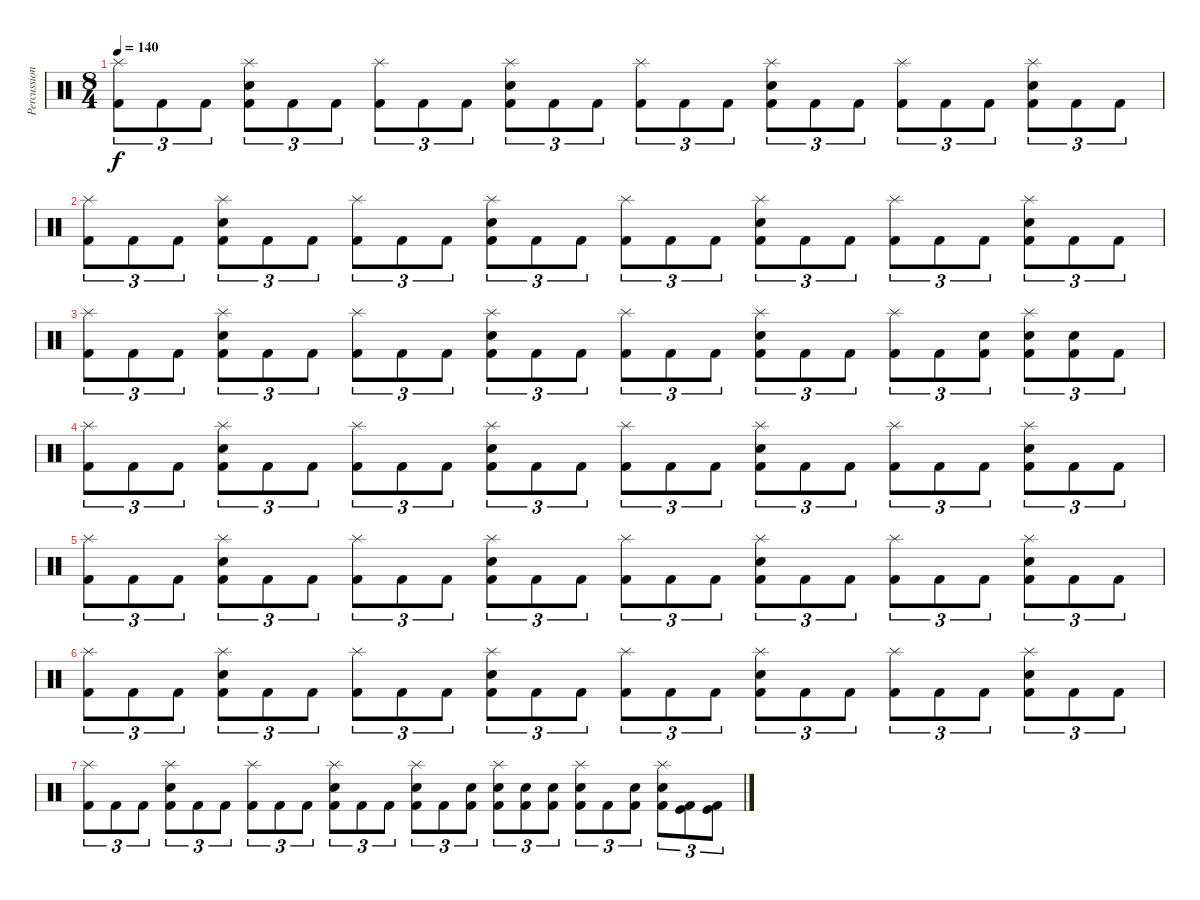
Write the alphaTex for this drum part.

\track ("Percussion" "Percussion") {instrument percussion}
\staff {score}
\articulation defaults
\ts (8 4)
\tempo 140
\clef neutral
\ks c
("Splash (hit)" "Kick (hit) 2").8{tu (3 2) dy f} "Kick (hit) 2".8{tu (3 2)} "Kick (hit) 2".8{tu (3 2)} ("Splash (hit)" "Snare (hit) 2" "Kick (hit) 2").8{tu (3 2)} "Kick (hit) 2".8{tu (3 2)} "Kick (hit) 2".8{tu (3 2)} ("Splash (hit)" "Kick (hit) 2").8{tu (3 2)} "Kick (hit) 2".8{tu (3 2)} "Kick (hit) 2".8{tu (3 2)} ("Splash (hit)" "Snare (hit) 2" "Kick (hit) 2").8{tu (3 2)} "Kick (hit) 2".8{tu (3 2)} "Kick (hit) 2".8{tu (3 2)} ("Splash (hit)" "Kick (hit) 2").8{tu (3 2)} "Kick (hit) 2".8{tu (3 2)} "Kick (hit) 2".8{tu (3 2)} ("Splash (hit)" "Snare (hit) 2" "Kick (hit) 2").8{tu (3 2)} "Kick (hit) 2".8{tu (3 2)} "Kick (hit) 2".8{tu (3 2)} ("Splash (hit)" "Kick (hit) 2").8{tu (3 2)} "Kick (hit) 2".8{tu (3 2)} "Kick (hit) 2".8{tu (3 2)} ("Splash (hit)" "Snare (hit) 2" "Kick (hit) 2").8{tu (3 2)} "Kick (hit) 2".8{tu (3 2)} "Kick (hit) 2".8{tu (3 2)} |
("Splash (hit)" "Kick (hit) 2").8{tu (3 2)} "Kick (hit) 2".8{tu (3 2)} "Kick (hit) 2".8{tu (3 2)} ("Splash (hit)" "Snare (hit) 2" "Kick (hit) 2").8{tu (3 2)} "Kick (hit) 2".8{tu (3 2)} "Kick (hit) 2".8{tu (3 2)} ("Splash (hit)" "Kick (hit) 2").8{tu (3 2)} "Kick (hit) 2".8{tu (3 2)} "Kick (hit) 2".8{tu (3 2)} ("Splash (hit)" "Snare (hit) 2" "Kick (hit) 2").8{tu (3 2)} "Kick (hit) 2".8{tu (3 2)} "Kick (hit) 2".8{tu (3 2)} ("Splash (hit)" "Kick (hit) 2").8{tu (3 2)} "Kick (hit) 2".8{tu (3 2)} "Kick (hit) 2".8{tu (3 2)} ("Splash (hit)" "Snare (hit) 2" "Kick (hit) 2").8{tu (3 2)} "Kick (hit) 2".8{tu (3 2)} "Kick (hit) 2".8{tu (3 2)} ("Splash (hit)" "Kick (hit) 2").8{tu (3 2)} "Kick (hit) 2".8{tu (3 2)} "Kick (hit) 2".8{tu (3 2)} ("Splash (hit)" "Snare (hit) 2" "Kick (hit) 2").8{tu (3 2)} "Kick (hit) 2".8{tu (3 2)} "Kick (hit) 2".8{tu (3 2)} |
("Splash (hit)" "Kick (hit) 2").8{tu (3 2) volume 12} "Kick (hit) 2".8{tu (3 2)} "Kick (hit) 2".8{tu (3 2)} ("Splash (hit)" "Snare (hit) 2" "Kick (hit) 2").8{tu (3 2)} "Kick (hit) 2".8{tu (3 2)} "Kick (hit) 2".8{tu (3 2)} ("Splash (hit)" "Kick (hit) 2").8{tu (3 2)} "Kick (hit) 2".8{tu (3 2)} "Kick (hit) 2".8{tu (3 2)} ("Splash (hit)" "Snare (hit) 2" "Kick (hit) 2").8{tu (3 2)} "Kick (hit) 2".8{tu (3 2)} "Kick (hit) 2".8{tu (3 2)} ("Splash (hit)" "Kick (hit) 2").8{tu (3 2)} "Kick (hit) 2".8{tu (3 2)} "Kick (hit) 2".8{tu (3 2)} ("Splash (hit)" "Snare (hit) 2" "Kick (hit) 2").8{tu (3 2)} "Kick (hit) 2".8{tu (3 2)} "Kick (hit) 2".8{tu (3 2)} ("Splash (hit)" "Kick (hit) 2").8{tu (3 2)} "Kick (hit) 2".8{tu (3 2)} ("Snare (hit) 2" "Kick (hit) 2").8{tu (3 2)} ("Splash (hit)" "Snare (hit) 2" "Kick (hit) 2").8{tu (3 2)} ("Snare (hit) 2" "Kick (hit) 2").8{tu (3 2)} "Kick (hit) 2".8{tu (3 2)} |
("Splash (hit)" "Kick (hit) 2").8{tu (3 2) volume 9} "Kick (hit) 2".8{tu (3 2)} "Kick (hit) 2".8{tu (3 2)} ("Splash (hit)" "Snare (hit) 2" "Kick (hit) 2").8{tu (3 2)} "Kick (hit) 2".8{tu (3 2)} "Kick (hit) 2".8{tu (3 2)} ("Splash (hit)" "Kick (hit) 2").8{tu (3 2)} "Kick (hit) 2".8{tu (3 2)} "Kick (hit) 2".8{tu (3 2)} ("Splash (hit)" "Snare (hit) 2" "Kick (hit) 2").8{tu (3 2)} "Kick (hit) 2".8{tu (3 2)} "Kick (hit) 2".8{tu (3 2)} ("Splash (hit)" "Kick (hit) 2").8{tu (3 2)} "Kick (hit) 2".8{tu (3 2)} "Kick (hit) 2".8{tu (3 2)} ("Splash (hit)" "Snare (hit) 2" "Kick (hit) 2").8{tu (3 2)} "Kick (hit) 2".8{tu (3 2)} "Kick (hit) 2".8{tu (3 2)} ("Splash (hit)" "Kick (hit) 2").8{tu (3 2)} "Kick (hit) 2".8{tu (3 2)} "Kick (hit) 2".8{tu (3 2)} ("Splash (hit)" "Snare (hit) 2" "Kick (hit) 2").8{tu (3 2)} "Kick (hit) 2".8{tu (3 2)} "Kick (hit) 2".8{tu (3 2)} |
("Splash (hit)" "Kick (hit) 2").8{tu (3 2) volume 6} "Kick (hit) 2".8{tu (3 2)} "Kick (hit) 2".8{tu (3 2)} ("Splash (hit)" "Snare (hit) 2" "Kick (hit) 2").8{tu (3 2)} "Kick (hit) 2".8{tu (3 2)} "Kick (hit) 2".8{tu (3 2)} ("Splash (hit)" "Kick (hit) 2").8{tu (3 2)} "Kick (hit) 2".8{tu (3 2)} "Kick (hit) 2".8{tu (3 2)} ("Splash (hit)" "Snare (hit) 2" "Kick (hit) 2").8{tu (3 2)} "Kick (hit) 2".8{tu (3 2)} "Kick (hit) 2".8{tu (3 2)} ("Splash (hit)" "Kick (hit) 2").8{tu (3 2)} "Kick (hit) 2".8{tu (3 2)} "Kick (hit) 2".8{tu (3 2)} ("Splash (hit)" "Snare (hit) 2" "Kick (hit) 2").8{tu (3 2)} "Kick (hit) 2".8{tu (3 2)} "Kick (hit) 2".8{tu (3 2)} ("Splash (hit)" "Kick (hit) 2").8{tu (3 2)} "Kick (hit) 2".8{tu (3 2)} "Kick (hit) 2".8{tu (3 2)} ("Splash (hit)" "Snare (hit) 2" "Kick (hit) 2").8{tu (3 2)} "Kick (hit) 2".8{tu (3 2)} "Kick (hit) 2".8{tu (3 2)} |
("Splash (hit)" "Kick (hit) 2").8{tu (3 2) volume 3} "Kick (hit) 2".8{tu (3 2)} "Kick (hit) 2".8{tu (3 2)} ("Splash (hit)" "Snare (hit) 2" "Kick (hit) 2").8{tu (3 2)} "Kick (hit) 2".8{tu (3 2)} "Kick (hit) 2".8{tu (3 2)} ("Splash (hit)" "Kick (hit) 2").8{tu (3 2)} "Kick (hit) 2".8{tu (3 2)} "Kick (hit) 2".8{tu (3 2)} ("Splash (hit)" "Snare (hit) 2" "Kick (hit) 2").8{tu (3 2)} "Kick (hit) 2".8{tu (3 2)} "Kick (hit) 2".8{tu (3 2)} ("Splash (hit)" "Kick (hit) 2").8{tu (3 2)} "Kick (hit) 2".8{tu (3 2)} "Kick (hit) 2".8{tu (3 2)} ("Splash (hit)" "Snare (hit) 2" "Kick (hit) 2").8{tu (3 2)} "Kick (hit) 2".8{tu (3 2)} "Kick (hit) 2".8{tu (3 2)} ("Splash (hit)" "Kick (hit) 2").8{tu (3 2)} "Kick (hit) 2".8{tu (3 2)} "Kick (hit) 2".8{tu (3 2)} ("Splash (hit)" "Snare (hit) 2" "Kick (hit) 2").8{tu (3 2)} "Kick (hit) 2".8{tu (3 2)} "Kick (hit) 2".8{tu (3 2)} |
("Splash (hit)" "Kick (hit) 2").8{tu (3 2) volume 0} "Kick (hit) 2".8{tu (3 2)} "Kick (hit) 2".8{tu (3 2)} ("Splash (hit)" "Snare (hit) 2" "Kick (hit) 2").8{tu (3 2)} "Kick (hit) 2".8{tu (3 2)} "Kick (hit) 2".8{tu (3 2)} ("Splash (hit)" "Kick (hit) 2").8{tu (3 2)} "Kick (hit) 2".8{tu (3 2)} "Kick (hit) 2".8{tu (3 2)} ("Splash (hit)" "Snare (hit) 2" "Kick (hit) 2").8{tu (3 2)} "Kick (hit) 2".8{tu (3 2)} "Kick (hit) 2".8{tu (3 2)} ("Splash (hit)" "Snare (hit) 2" "Kick (hit) 2").8{tu (3 2)} "Kick (hit) 2".8{tu (3 2)} ("Snare (hit) 2" "Kick (hit) 2").8{tu (3 2)} ("Splash (hit)" "Snare (hit) 2" "Kick (hit) 2").8{tu (3 2)} ("Snare (hit) 2" "Kick (hit) 2").8{tu (3 2)} ("Snare (hit) 2" "Kick (hit) 2").8{tu (3 2)} ("Splash (hit)" "Snare (hit) 2" "Kick (hit) 2").8{tu (3 2)} "Kick (hit) 2".8{tu (3 2)} ("Snare (hit) 2" "Kick (hit) 2").8{tu (3 2)} ("Splash (hit)" "Snare (hit) 2" "Kick (hit) 2").8{tu (3 2)} ("Kick (hit)" "Kick (hit) 2").8{tu (3 2)} ("Kick (hit)" "Kick (hit) 2").8{tu (3 2)}
